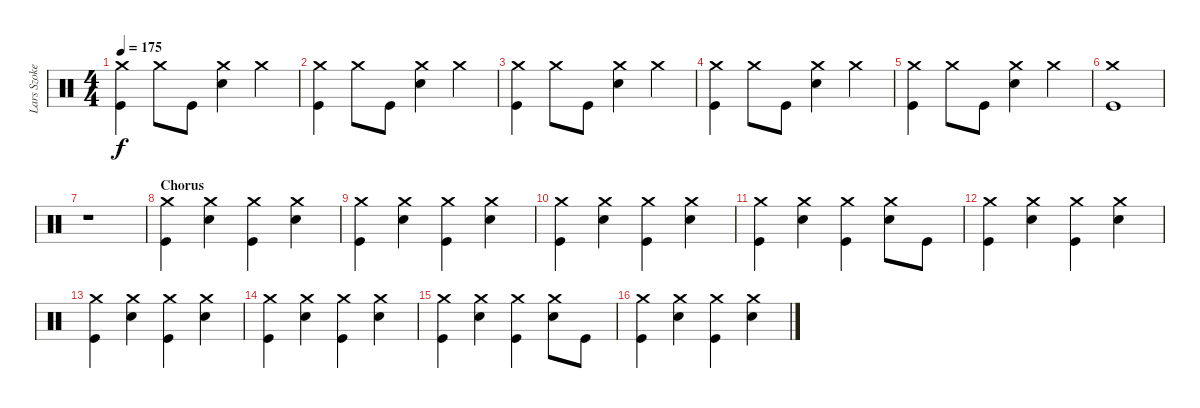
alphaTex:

\track ("Lars Szoke" "Lars Szoke") {instrument percussion}
\staff {score}
\articulation defaults
\ts (4 4)
\tempo 175
\clef neutral
\ks c
("Crash medium (hit)" "Kick (hit)").4{dy f} "Crash medium (hit)".8 "Kick (hit)".8 ("Crash medium (hit)" "Electric Snare (hit)").4 "Crash medium (hit)".4 |
("Crash medium (hit)" "Kick (hit)").4 "Crash medium (hit)".8 "Kick (hit)".8 ("Crash medium (hit)" "Electric Snare (hit)").4 "Crash medium (hit)".4 |
("Crash medium (hit)" "Kick (hit)").4 "Crash medium (hit)".8 "Kick (hit)".8 ("Crash medium (hit)" "Electric Snare (hit)").4 "Crash medium (hit)".4 |
("Crash medium (hit)" "Kick (hit)").4 "Crash medium (hit)".8 "Kick (hit)".8 ("Crash medium (hit)" "Electric Snare (hit)").4 "Crash medium (hit)".4 |
("Crash medium (hit)" "Kick (hit)").4 "Crash medium (hit)".8 "Kick (hit)".8 ("Crash medium (hit)" "Electric Snare (hit)").4 "Crash medium (hit)".4 |
("Crash medium (hit)" "Kick (hit)").1 |
r.1 |
\section ("" "Chorus")
("Crash medium (hit)" "Kick (hit)").4 ("Crash medium (hit)" "Electric Snare (hit)").4 ("Crash medium (hit)" "Kick (hit)").4 ("Crash medium (hit)" "Electric Snare (hit)").4 |
("Crash medium (hit)" "Kick (hit)").4 ("Crash medium (hit)" "Electric Snare (hit)").4 ("Crash medium (hit)" "Kick (hit)").4 ("Crash medium (hit)" "Electric Snare (hit)").4 |
("Crash medium (hit)" "Kick (hit)").4 ("Crash medium (hit)" "Electric Snare (hit)").4 ("Crash medium (hit)" "Kick (hit)").4 ("Crash medium (hit)" "Electric Snare (hit)").4 |
("Crash medium (hit)" "Kick (hit)").4 ("Crash medium (hit)" "Electric Snare (hit)").4 ("Crash medium (hit)" "Kick (hit)").4 ("Crash medium (hit)" "Electric Snare (hit)").8 "Kick (hit)".8 |
("Crash medium (hit)" "Kick (hit)").4 ("Crash medium (hit)" "Electric Snare (hit)").4 ("Crash medium (hit)" "Kick (hit)").4 ("Crash medium (hit)" "Electric Snare (hit)").4 |
("Crash medium (hit)" "Kick (hit)").4 ("Crash medium (hit)" "Electric Snare (hit)").4 ("Crash medium (hit)" "Kick (hit)").4 ("Crash medium (hit)" "Electric Snare (hit)").4 |
("Crash medium (hit)" "Kick (hit)").4 ("Crash medium (hit)" "Electric Snare (hit)").4 ("Crash medium (hit)" "Kick (hit)").4 ("Crash medium (hit)" "Electric Snare (hit)").4 |
("Crash medium (hit)" "Kick (hit)").4 ("Crash medium (hit)" "Electric Snare (hit)").4 ("Crash medium (hit)" "Kick (hit)").4 ("Crash medium (hit)" "Electric Snare (hit)").8 "Kick (hit)".8 |
("Crash medium (hit)" "Kick (hit)").4 ("Crash medium (hit)" "Electric Snare (hit)").4 ("Crash medium (hit)" "Kick (hit)").4 ("Crash medium (hit)" "Electric Snare (hit)").4
